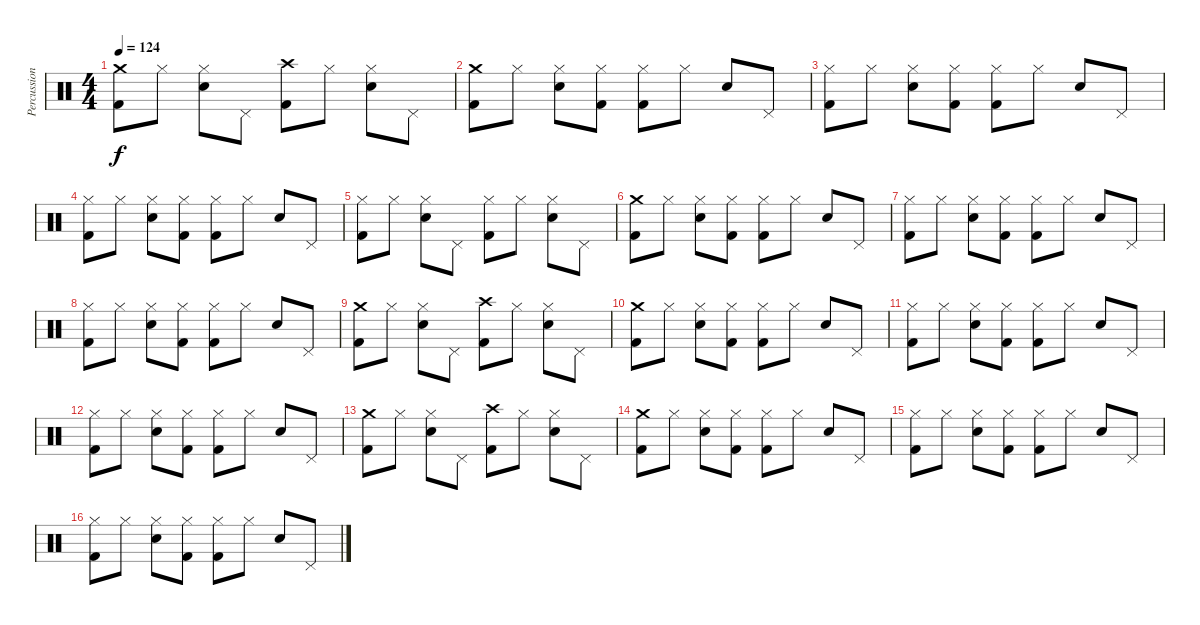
\track ("Percussions" "Percussion") {instrument percussion}
\staff {score}
\articulation defaults
\ts (4 4)
\tempo 124
\clef neutral
\ks c
("Crash medium (hit)" "Kick (hit) 2").8{dy f} "Hi-Hat (closed)".8 ("Hi-Hat (closed)" "Electric Snare (hit)").8 "Pedal Hi-Hat (hit)".8 ("Crash high (hit)" "Kick (hit) 2").8 "Hi-Hat (closed)".8 ("Hi-Hat (closed)" "Electric Snare (hit)").8 "Pedal Hi-Hat (hit)".8 |
("Crash medium (hit)" "Kick (hit) 2").8 "Hi-Hat (closed)".8 ("Hi-Hat (closed)" "Electric Snare (hit)").8 ("Hi-Hat (closed)" "Kick (hit) 2").8 ("Hi-Hat (closed)" "Kick (hit) 2").8 "Hi-Hat (closed)".8 "Electric Snare (hit)".8 "Pedal Hi-Hat (hit)".8 |
("Hi-Hat (closed)" "Kick (hit) 2").8 "Hi-Hat (closed)".8 ("Hi-Hat (closed)" "Electric Snare (hit)").8 ("Hi-Hat (closed)" "Kick (hit) 2").8 ("Hi-Hat (closed)" "Kick (hit) 2").8 "Hi-Hat (closed)".8 "Electric Snare (hit)".8 "Pedal Hi-Hat (hit)".8 |
("Hi-Hat (closed)" "Kick (hit) 2").8 "Hi-Hat (closed)".8 ("Hi-Hat (closed)" "Electric Snare (hit)").8 ("Hi-Hat (closed)" "Kick (hit) 2").8 ("Hi-Hat (closed)" "Kick (hit) 2").8 "Hi-Hat (closed)".8 "Electric Snare (hit)".8 "Pedal Hi-Hat (hit)".8 |
("Hi-Hat (closed)" "Kick (hit) 2").8 "Hi-Hat (closed)".8 ("Hi-Hat (closed)" "Electric Snare (hit)").8 "Pedal Hi-Hat (hit)".8 ("Hi-Hat (closed)" "Kick (hit) 2").8 "Hi-Hat (closed)".8 ("Hi-Hat (closed)" "Electric Snare (hit)").8 "Pedal Hi-Hat (hit)".8 |
("Crash medium (hit)" "Kick (hit) 2").8 "Hi-Hat (closed)".8 ("Hi-Hat (closed)" "Electric Snare (hit)").8 ("Hi-Hat (closed)" "Kick (hit) 2").8 ("Hi-Hat (closed)" "Kick (hit) 2").8 "Hi-Hat (closed)".8 "Electric Snare (hit)".8 "Pedal Hi-Hat (hit)".8 |
("Hi-Hat (closed)" "Kick (hit) 2").8 "Hi-Hat (closed)".8 ("Hi-Hat (closed)" "Electric Snare (hit)").8 ("Hi-Hat (closed)" "Kick (hit) 2").8 ("Hi-Hat (closed)" "Kick (hit) 2").8 "Hi-Hat (closed)".8 "Electric Snare (hit)".8 "Pedal Hi-Hat (hit)".8 |
("Hi-Hat (closed)" "Kick (hit) 2").8 "Hi-Hat (closed)".8 ("Hi-Hat (closed)" "Electric Snare (hit)").8 ("Hi-Hat (closed)" "Kick (hit) 2").8 ("Hi-Hat (closed)" "Kick (hit) 2").8 "Hi-Hat (closed)".8 "Electric Snare (hit)".8 "Pedal Hi-Hat (hit)".8 |
("Crash medium (hit)" "Kick (hit) 2").8 "Hi-Hat (closed)".8 ("Hi-Hat (closed)" "Electric Snare (hit)").8 "Pedal Hi-Hat (hit)".8 ("Crash high (hit)" "Kick (hit) 2").8 "Hi-Hat (closed)".8 ("Hi-Hat (closed)" "Electric Snare (hit)").8 "Pedal Hi-Hat (hit)".8 |
("Crash medium (hit)" "Kick (hit) 2").8 "Hi-Hat (closed)".8 ("Hi-Hat (closed)" "Electric Snare (hit)").8 ("Hi-Hat (closed)" "Kick (hit) 2").8 ("Hi-Hat (closed)" "Kick (hit) 2").8 "Hi-Hat (closed)".8 "Electric Snare (hit)".8 "Pedal Hi-Hat (hit)".8 |
("Hi-Hat (closed)" "Kick (hit) 2").8 "Hi-Hat (closed)".8 ("Hi-Hat (closed)" "Electric Snare (hit)").8 ("Hi-Hat (closed)" "Kick (hit) 2").8 ("Hi-Hat (closed)" "Kick (hit) 2").8 "Hi-Hat (closed)".8 "Electric Snare (hit)".8 "Pedal Hi-Hat (hit)".8 |
("Hi-Hat (closed)" "Kick (hit) 2").8 "Hi-Hat (closed)".8 ("Hi-Hat (closed)" "Electric Snare (hit)").8 ("Hi-Hat (closed)" "Kick (hit) 2").8 ("Hi-Hat (closed)" "Kick (hit) 2").8 "Hi-Hat (closed)".8 "Electric Snare (hit)".8 "Pedal Hi-Hat (hit)".8 |
("Crash medium (hit)" "Kick (hit) 2").8 "Hi-Hat (closed)".8 ("Hi-Hat (closed)" "Electric Snare (hit)").8 "Pedal Hi-Hat (hit)".8 ("Crash high (hit)" "Kick (hit) 2").8 "Hi-Hat (closed)".8 ("Hi-Hat (closed)" "Electric Snare (hit)").8 "Pedal Hi-Hat (hit)".8 |
("Crash medium (hit)" "Kick (hit) 2").8 "Hi-Hat (closed)".8 ("Hi-Hat (closed)" "Electric Snare (hit)").8 ("Hi-Hat (closed)" "Kick (hit) 2").8 ("Hi-Hat (closed)" "Kick (hit) 2").8 "Hi-Hat (closed)".8 "Electric Snare (hit)".8 "Pedal Hi-Hat (hit)".8 |
("Hi-Hat (closed)" "Kick (hit) 2").8 "Hi-Hat (closed)".8 ("Hi-Hat (closed)" "Electric Snare (hit)").8 ("Hi-Hat (closed)" "Kick (hit) 2").8 ("Hi-Hat (closed)" "Kick (hit) 2").8 "Hi-Hat (closed)".8 "Electric Snare (hit)".8 "Pedal Hi-Hat (hit)".8 |
("Hi-Hat (closed)" "Kick (hit) 2").8 "Hi-Hat (closed)".8 ("Hi-Hat (closed)" "Electric Snare (hit)").8 ("Hi-Hat (closed)" "Kick (hit) 2").8 ("Hi-Hat (closed)" "Kick (hit) 2").8 "Hi-Hat (closed)".8 "Electric Snare (hit)".8 "Pedal Hi-Hat (hit)".8
